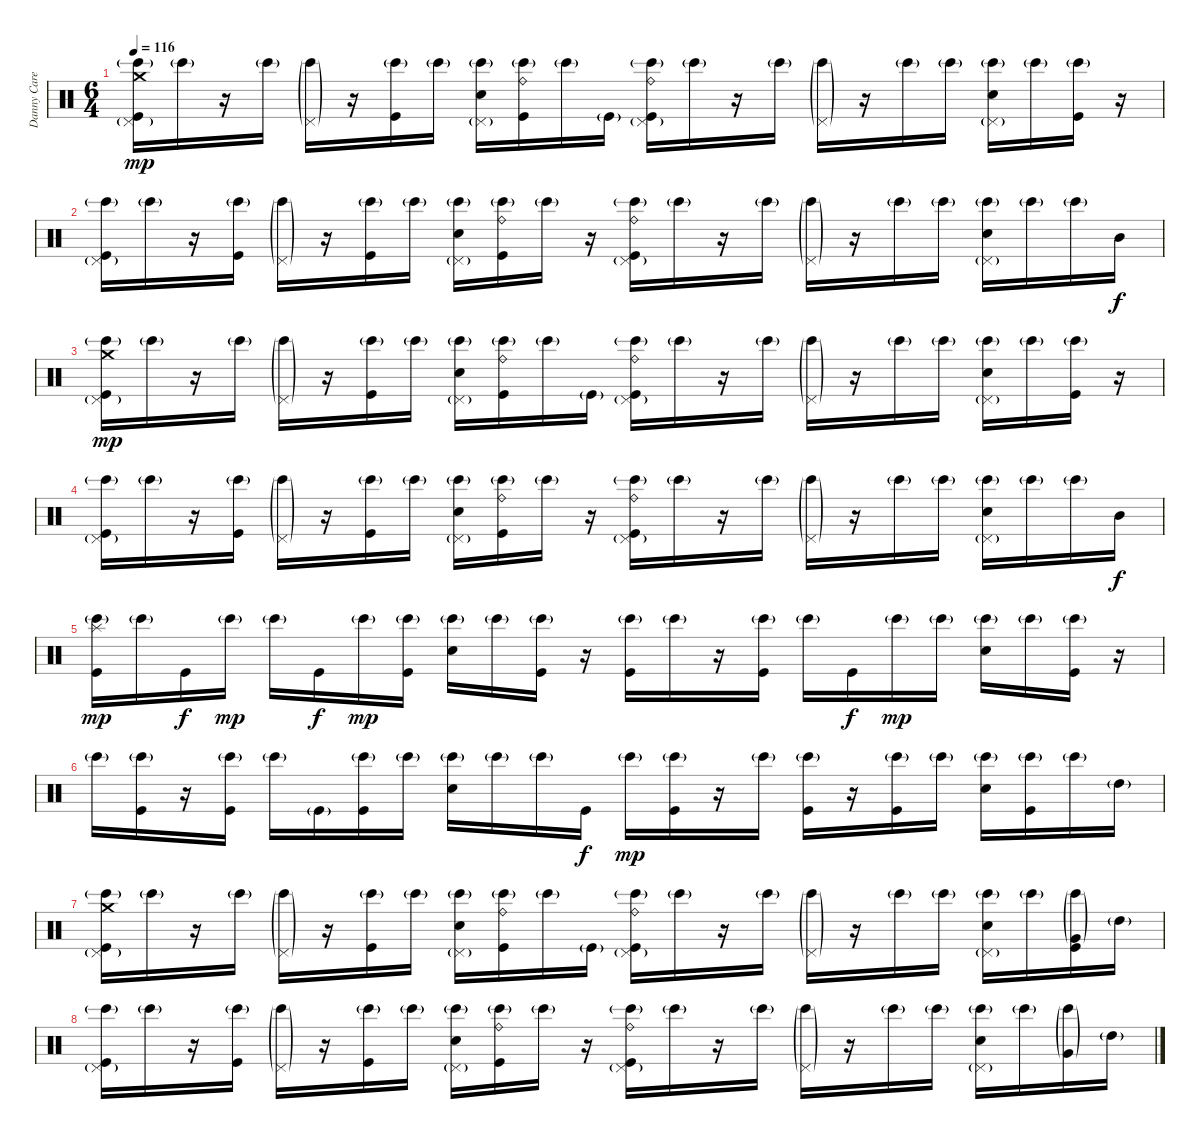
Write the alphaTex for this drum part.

\track ("Danny Carey (drum)" "Danny Care") {instrument percussion}
\staff {score}
\articulation defaults
\ts (6 4)
\tempo 116
\clef neutral
\ks c
("Crash medium (hit)" "Bongo High (hit)"{g} "Pedal Hi-Hat (hit)"{g} "Kick (hit)").16{dy mp} "Bongo High (hit)"{g}.16 r.16 "Bongo High (hit)"{g}.16 ("Bongo High (hit)"{g} "Pedal Hi-Hat (hit)"{g}).16 r.16 ("Bongo High (hit)"{g} "Kick (hit)").16 "Bongo High (hit)"{g}.16 ("Bongo High (hit)"{g} "Pedal Hi-Hat (hit)"{g} "Snare (hit) 2").16 ("Ride (bell)" "Bongo High (hit)"{g} "Kick (hit)").16 "Bongo High (hit)"{g}.16 "Kick (hit)"{g}.16 ("Ride (bell)" "Bongo High (hit)"{g} "Pedal Hi-Hat (hit)"{g} "Kick (hit)").16 "Bongo High (hit)"{g}.16 r.16 "Bongo High (hit)"{g}.16 ("Bongo High (hit)"{g} "Pedal Hi-Hat (hit)"{g}).16 r.16 "Bongo High (hit)"{g}.16 "Bongo High (hit)"{g}.16 ("Bongo High (hit)"{g} "Pedal Hi-Hat (hit)"{g} "Snare (hit) 2").16 "Bongo High (hit)"{g}.16 ("Bongo High (hit)"{g} "Kick (hit)").16 r.16 |
("Bongo High (hit)"{g} "Pedal Hi-Hat (hit)"{g} "Kick (hit)").16 "Bongo High (hit)"{g}.16 r.16 ("Bongo High (hit)"{g} "Kick (hit)").16 ("Bongo High (hit)"{g} "Pedal Hi-Hat (hit)"{g}).16 r.16 ("Bongo High (hit)"{g} "Kick (hit)").16 "Bongo High (hit)"{g}.16 ("Bongo High (hit)"{g} "Pedal Hi-Hat (hit)"{g} "Snare (hit) 2").16 ("Ride (bell)" "Bongo High (hit)"{g} "Kick (hit)").16 "Bongo High (hit)"{g}.16 r.16 ("Ride (bell)" "Bongo High (hit)"{g} "Pedal Hi-Hat (hit)"{g} "Kick (hit)").16 "Bongo High (hit)"{g}.16 r.16 "Bongo High (hit)"{g}.16 ("Bongo High (hit)"{g} "Pedal Hi-Hat (hit)"{g}).16 r.16 "Bongo High (hit)"{g}.16 "Bongo High (hit)"{g}.16 ("Bongo High (hit)"{g} "Pedal Hi-Hat (hit)"{g} "Snare (hit) 2").16 "Bongo High (hit)"{g}.16 "Bongo High (hit)"{g}.16 "Mid Tom (hit)".16{dy f} |
("Crash medium (hit)" "Bongo High (hit)"{g} "Pedal Hi-Hat (hit)"{g} "Kick (hit)").16{dy mp} "Bongo High (hit)"{g}.16 r.16 "Bongo High (hit)"{g}.16 ("Bongo High (hit)"{g} "Pedal Hi-Hat (hit)"{g}).16 r.16 ("Bongo High (hit)"{g} "Kick (hit)").16 "Bongo High (hit)"{g}.16 ("Bongo High (hit)"{g} "Pedal Hi-Hat (hit)"{g} "Snare (hit) 2").16 ("Ride (bell)" "Bongo High (hit)"{g} "Kick (hit)").16 "Bongo High (hit)"{g}.16 "Kick (hit)"{g}.16 ("Ride (bell)" "Bongo High (hit)"{g} "Pedal Hi-Hat (hit)"{g} "Kick (hit)").16 "Bongo High (hit)"{g}.16 r.16 "Bongo High (hit)"{g}.16 ("Bongo High (hit)"{g} "Pedal Hi-Hat (hit)"{g}).16 r.16 "Bongo High (hit)"{g}.16 "Bongo High (hit)"{g}.16 ("Bongo High (hit)"{g} "Pedal Hi-Hat (hit)"{g} "Snare (hit) 2").16 "Bongo High (hit)"{g}.16 ("Bongo High (hit)"{g} "Kick (hit)").16 r.16 |
("Bongo High (hit)"{g} "Pedal Hi-Hat (hit)"{g} "Kick (hit)").16 "Bongo High (hit)"{g}.16 r.16 ("Bongo High (hit)"{g} "Kick (hit)").16 ("Bongo High (hit)"{g} "Pedal Hi-Hat (hit)"{g}).16 r.16 ("Bongo High (hit)"{g} "Kick (hit)").16 "Bongo High (hit)"{g}.16 ("Bongo High (hit)"{g} "Pedal Hi-Hat (hit)"{g} "Snare (hit) 2").16 ("Ride (bell)" "Bongo High (hit)"{g} "Kick (hit)").16 "Bongo High (hit)"{g}.16 r.16 ("Ride (bell)" "Bongo High (hit)"{g} "Pedal Hi-Hat (hit)"{g} "Kick (hit)").16 "Bongo High (hit)"{g}.16 r.16 "Bongo High (hit)"{g}.16 ("Bongo High (hit)"{g} "Pedal Hi-Hat (hit)"{g}).16 r.16 "Bongo High (hit)"{g}.16 "Bongo High (hit)"{g}.16 ("Bongo High (hit)"{g} "Pedal Hi-Hat (hit)"{g} "Snare (hit) 2").16 "Bongo High (hit)"{g}.16 "Bongo High (hit)"{g}.16 "Mid Tom (hit)".16{dy f} |
("Splash (hit)" "Bongo High (hit)"{g} "Kick (hit)").16{dy mp} "Bongo High (hit)"{g}.16 "Kick (hit)".16{dy f} "Bongo High (hit)"{g}.16{dy mp} "Bongo High (hit)"{g}.16 "Kick (hit)".16{dy f} "Bongo High (hit)"{g}.16{dy mp} ("Bongo High (hit)"{g} "Kick (hit)").16 ("Bongo High (hit)"{g} "Snare (hit) 2").16 "Bongo High (hit)"{g}.16 ("Bongo High (hit)"{g} "Kick (hit)").16 r.16 ("Bongo High (hit)"{g} "Kick (hit)").16 "Bongo High (hit)"{g}.16 r.16 ("Bongo High (hit)"{g} "Kick (hit)").16 "Bongo High (hit)"{g}.16 "Kick (hit)".16{dy f} "Bongo High (hit)"{g}.16{dy mp} "Bongo High (hit)"{g}.16 ("Bongo High (hit)"{g} "Snare (hit) 2").16 "Bongo High (hit)"{g}.16 ("Bongo High (hit)"{g} "Kick (hit)").16 r.16 |
"Bongo High (hit)"{g}.16 ("Bongo High (hit)"{g} "Kick (hit)").16 r.16 ("Bongo High (hit)"{g} "Kick (hit)").16 "Bongo High (hit)"{g}.16 "Kick (hit)"{g}.16 ("Bongo High (hit)"{g} "Kick (hit)").16 "Bongo High (hit)"{g}.16 ("Bongo High (hit)"{g} "Snare (hit) 2").16 "Bongo High (hit)"{g}.16 "Bongo High (hit)"{g}.16 "Kick (hit)".16{dy f} "Bongo High (hit)"{g}.16{dy mp} ("Bongo High (hit)"{g} "Kick (hit)").16 r.16 "Bongo High (hit)"{g}.16 ("Bongo High (hit)"{g} "Kick (hit)").16 r.16 ("Bongo High (hit)"{g} "Kick (hit)").16 "Bongo High (hit)"{g}.16 ("Bongo High (hit)"{g} "Snare (hit) 2").16 ("Bongo High (hit)"{g} "Kick (hit)").16 "Bongo High (hit)"{g}.16 "High Tom (hit)"{g}.16 |
("Crash medium (hit)" "Bongo High (hit)"{g} "Pedal Hi-Hat (hit)"{g} "Kick (hit)").16 "Bongo High (hit)"{g}.16 r.16 "Bongo High (hit)"{g}.16 ("Bongo High (hit)"{g} "Pedal Hi-Hat (hit)"{g}).16 r.16 ("Bongo High (hit)"{g} "Kick (hit)").16 "Bongo High (hit)"{g}.16 ("Bongo High (hit)"{g} "Pedal Hi-Hat (hit)"{g} "Snare (hit) 2").16 ("Ride (bell)" "Bongo High (hit)"{g} "Kick (hit)").16 "Bongo High (hit)"{g}.16 "Kick (hit)"{g}.16 ("Ride (bell)" "Bongo High (hit)"{g} "Pedal Hi-Hat (hit)"{g} "Kick (hit)").16 "Bongo High (hit)"{g}.16 r.16 "Bongo High (hit)"{g}.16 ("Bongo High (hit)"{g} "Pedal Hi-Hat (hit)"{g}).16 r.16 "Bongo High (hit)"{g}.16 "Bongo High (hit)"{g}.16 ("Bongo High (hit)"{g} "Pedal Hi-Hat (hit)"{g} "Snare (hit) 2").16 "Bongo High (hit)"{g}.16 ("Bongo High (hit)"{g} "Very Low Tom (hit)"{g} "Kick (hit)").16 "High Tom (hit)"{g}.16 |
("Bongo High (hit)"{g} "Pedal Hi-Hat (hit)"{g} "Kick (hit)").16 "Bongo High (hit)"{g}.16 r.16 ("Bongo High (hit)"{g} "Kick (hit)").16 ("Bongo High (hit)"{g} "Pedal Hi-Hat (hit)"{g}).16 r.16 ("Bongo High (hit)"{g} "Kick (hit)").16 "Bongo High (hit)"{g}.16 ("Bongo High (hit)"{g} "Pedal Hi-Hat (hit)"{g} "Snare (hit) 2").16 ("Ride (bell)" "Bongo High (hit)"{g} "Kick (hit)").16 "Bongo High (hit)"{g}.16 r.16 ("Ride (bell)" "Bongo High (hit)"{g} "Pedal Hi-Hat (hit)"{g} "Kick (hit)").16 "Bongo High (hit)"{g}.16 r.16 "Bongo High (hit)"{g}.16 ("Bongo High (hit)"{g} "Pedal Hi-Hat (hit)"{g}).16 r.16 "Bongo High (hit)"{g}.16 "Bongo High (hit)"{g}.16 ("Bongo High (hit)"{g} "Pedal Hi-Hat (hit)"{g} "Snare (hit) 2").16 "Bongo High (hit)"{g}.16 ("Bongo High (hit)"{g} "Very Low Tom (hit)"{g}).16 "High Tom (hit)"{g}.16
